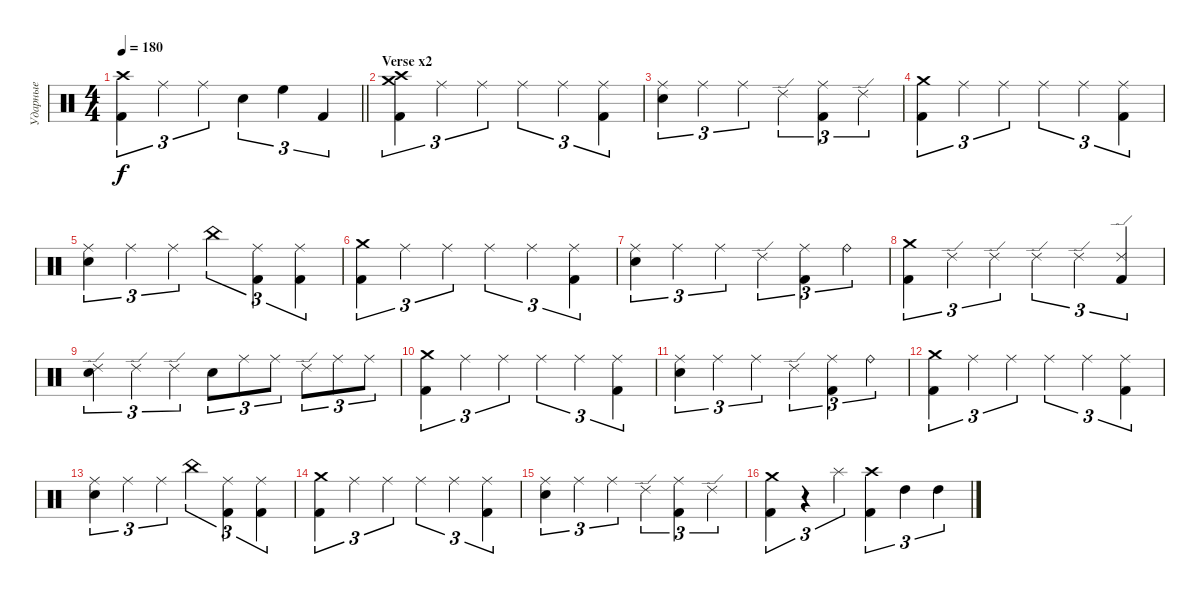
\track ("Ударные" "Ударные") {instrument percussion}
\staff {score}
\articulation defaults
\ts (4 4)
\tempo 180
\clef neutral
\barLineRight lightlight
\ks c
("Crash high (hit)" "Kick (hit) 2").4{tu (3 2) dy f} "Ride (middle)".4{tu (3 2)} "Ride (middle)".4{tu (3 2)} "Electric Snare (hit)".4{tu (3 2)} "High Floor Tom (hit)".4{tu (3 2)} "Kick (hit) 2".4{tu (3 2)} |
\section ("" "Verse x2")
("Crash high (hit)" "Crash medium (hit)" "Kick (hit) 2").4{tu (3 2)} "Ride (middle)".4{tu (3 2)} "Ride (middle)".4{tu (3 2)} "Ride (middle)".4{tu (3 2)} "Ride (middle)".4{tu (3 2)} ("Ride (middle)" "Kick (hit) 2").4{tu (3 2)} |
("Ride (middle)" "Electric Snare (hit)").4{tu (3 2)} "Ride (middle)".4{tu (3 2)} "Ride (middle)".4{tu (3 2)} "Ride (edge) 2".4{tu (3 2)} ("Ride (middle)" "Kick (hit) 2").4{tu (3 2)} "Ride (edge) 2".4{tu (3 2)} |
("Crash medium (hit)" "Kick (hit) 2").4{tu (3 2)} "Ride (middle)".4{tu (3 2)} "Ride (middle)".4{tu (3 2)} "Ride (middle)".4{tu (3 2)} "Ride (middle)".4{tu (3 2)} ("Ride (middle)" "Kick (hit) 2").4{tu (3 2)} |
("Ride (middle)" "Electric Snare (hit)").4{tu (3 2)} "Ride (middle)".4{tu (3 2)} "Ride (middle)".4{tu (3 2)} "China (hit)".4{tu (3 2)} ("Ride (middle)" "Kick (hit) 2").4{tu (3 2)} ("Ride (middle)" "Kick (hit) 2").4{tu (3 2)} |
("Crash medium (hit)" "Kick (hit) 2").4{tu (3 2)} "Ride (middle)".4{tu (3 2)} "Ride (middle)".4{tu (3 2)} "Ride (middle)".4{tu (3 2)} "Ride (middle)".4{tu (3 2)} ("Ride (middle)" "Kick (hit) 2").4{tu (3 2)} |
("Ride (middle)" "Electric Snare (hit)").4{tu (3 2)} "Ride (middle)".4{tu (3 2)} "Ride (middle)".4{tu (3 2)} "Ride (edge) 2".4{tu (3 2)} ("Ride (middle)" "Kick (hit) 2").4{tu (3 2)} "Ride (bell)".4{tu (3 2)} |
("Crash medium (hit)" "Kick (hit) 2").4{tu (3 2)} "Ride (edge) 2".4{tu (3 2)} "Ride (edge) 2".4{tu (3 2)} "Ride (edge) 2".4{tu (3 2)} "Ride (edge) 2".4{tu (3 2)} ("Ride (edge) 2" "Kick (hit) 2").4{tu (3 2)} |
("Ride (edge) 2" "Electric Snare (hit)").4{tu (3 2)} "Ride (edge) 2".4{tu (3 2)} "Ride (edge) 2".4{tu (3 2)} "Electric Snare (hit)".8{tu (3 2)} "Ride (middle)".8{tu (3 2)} "Ride (middle)".8{tu (3 2)} "Ride (edge) 2".8{tu (3 2)} "Ride (middle)".8{tu (3 2)} "Ride (middle)".8{tu (3 2)} |
("Crash medium (hit)" "Kick (hit) 2").4{tu (3 2)} "Ride (middle)".4{tu (3 2)} "Ride (middle)".4{tu (3 2)} "Ride (middle)".4{tu (3 2)} "Ride (middle)".4{tu (3 2)} ("Ride (middle)" "Kick (hit) 2").4{tu (3 2)} |
("Ride (middle)" "Electric Snare (hit)").4{tu (3 2)} "Ride (middle)".4{tu (3 2)} "Ride (middle)".4{tu (3 2)} "Ride (edge) 2".4{tu (3 2)} ("Ride (middle)" "Kick (hit) 2").4{tu (3 2)} "Ride (bell)".4{tu (3 2)} |
("Crash medium (hit)" "Kick (hit) 2").4{tu (3 2)} "Ride (middle)".4{tu (3 2)} "Ride (middle)".4{tu (3 2)} "Ride (middle)".4{tu (3 2)} "Ride (middle)".4{tu (3 2)} ("Ride (middle)" "Kick (hit) 2").4{tu (3 2)} |
("Ride (middle)" "Electric Snare (hit)").4{tu (3 2)} "Ride (middle)".4{tu (3 2)} "Ride (middle)".4{tu (3 2)} "China (hit)".4{tu (3 2)} ("Ride (middle)" "Kick (hit) 2").4{tu (3 2)} ("Ride (middle)" "Kick (hit) 2").4{tu (3 2)} |
("Crash medium (hit)" "Kick (hit) 2").4{tu (3 2)} "Ride (middle)".4{tu (3 2)} "Ride (middle)".4{tu (3 2)} "Ride (middle)".4{tu (3 2)} "Ride (middle)".4{tu (3 2)} ("Ride (middle)" "Kick (hit) 2").4{tu (3 2)} |
("Ride (middle)" "Electric Snare (hit)").4{tu (3 2)} "Ride (middle)".4{tu (3 2)} "Ride (middle)".4{tu (3 2)} "Ride (edge) 2".4{tu (3 2)} ("Ride (middle)" "Kick (hit) 2").4{tu (3 2)} "Ride (edge) 2".4{tu (3 2)} |
("Crash medium (hit)" "Kick (hit) 2").4{tu (3 2)} r.4{tu (3 2)} "Splash (hit)".4{tu (3 2)} ("Crash high (hit)" "Kick (hit) 2").4{tu (3 2)} "High Tom (hit)".4{tu (3 2)} "High Tom (hit)".4{tu (3 2)}
